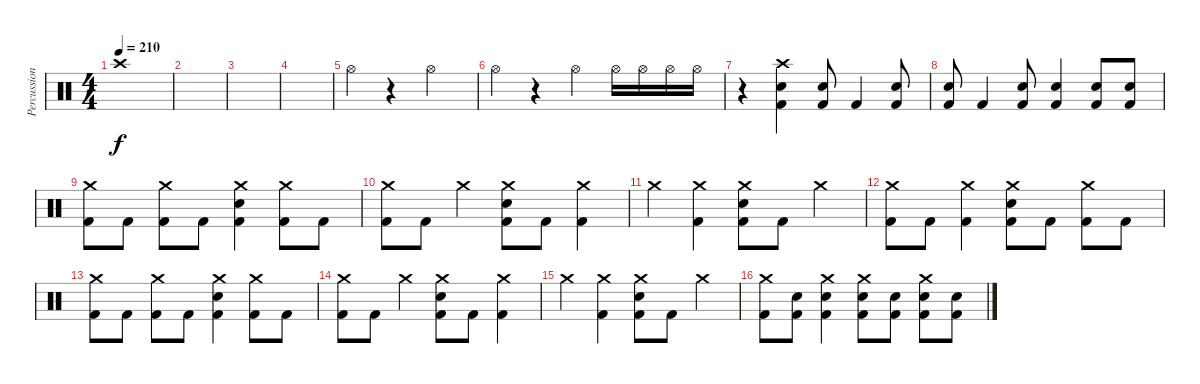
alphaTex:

\track ("Percussion" "Percussion") {instrument percussion}
\staff {score}
\articulation defaults
\ts (4 4)
\tempo 210
\clef neutral
\ks c "Crash high (hit)".1{dy f}
|
|
|
|
"Hi-Hat (open)".4 r.4 "Hi-Hat (open)".2 |
"Hi-Hat (open)".4 r.4 "Hi-Hat (open)".4 "Hi-Hat (open)".16 "Hi-Hat (open)".16 "Hi-Hat (open)".16 "Hi-Hat (open)".16 |
r.4 ("Crash high (hit)" "Electric Snare (hit)" "Kick (hit) 2").4 ("Electric Snare (hit)" "Kick (hit) 2").8 "Kick (hit) 2".4 ("Electric Snare (hit)" "Kick (hit) 2").8 |
("Electric Snare (hit)" "Kick (hit) 2").8 "Kick (hit) 2".4 ("Electric Snare (hit)" "Kick (hit) 2").8 ("Electric Snare (hit)" "Kick (hit) 2").4 ("Electric Snare (hit)" "Kick (hit) 2").8 ("Electric Snare (hit)" "Kick (hit) 2").8 |
("Crash medium (hit)" "Kick (hit) 2").8 "Kick (hit) 2".8 ("Crash medium (hit)" "Kick (hit) 2").8 "Kick (hit) 2".8 ("Crash medium (hit)" "Electric Snare (hit)" "Kick (hit) 2").4 ("Crash medium (hit)" "Kick (hit) 2").8 "Kick (hit) 2".8 |
("Crash medium (hit)" "Kick (hit) 2").8 "Kick (hit) 2".8 "Crash medium (hit)".4 ("Crash medium (hit)" "Electric Snare (hit)" "Kick (hit) 2").8 "Kick (hit) 2".8 ("Crash medium (hit)" "Kick (hit) 2").4 |
"Crash medium (hit)".4 ("Crash medium (hit)" "Kick (hit) 2").4 ("Crash medium (hit)" "Electric Snare (hit)" "Kick (hit) 2").8 "Kick (hit) 2".8 "Crash medium (hit)".4 |
("Crash medium (hit)" "Kick (hit) 2").8 "Kick (hit) 2".8 ("Crash medium (hit)" "Kick (hit) 2").4 ("Crash medium (hit)" "Electric Snare (hit)" "Kick (hit) 2").8 "Kick (hit) 2".8 ("Crash medium (hit)" "Kick (hit) 2").8 "Kick (hit) 2".8 |
("Crash medium (hit)" "Kick (hit) 2").8 "Kick (hit) 2".8 ("Crash medium (hit)" "Kick (hit) 2").8 "Kick (hit) 2".8 ("Crash medium (hit)" "Electric Snare (hit)" "Kick (hit) 2").4 ("Crash medium (hit)" "Kick (hit) 2").8 "Kick (hit) 2".8 |
("Crash medium (hit)" "Kick (hit) 2").8 "Kick (hit) 2".8 "Crash medium (hit)".4 ("Crash medium (hit)" "Electric Snare (hit)" "Kick (hit) 2").8 "Kick (hit) 2".8 ("Crash medium (hit)" "Kick (hit) 2").4 |
"Crash medium (hit)".4 ("Crash medium (hit)" "Kick (hit) 2").4 ("Crash medium (hit)" "Electric Snare (hit)" "Kick (hit) 2").8 "Kick (hit) 2".8 "Crash medium (hit)".4 |
("Crash medium (hit)" "Kick (hit) 2").8 ("Electric Snare (hit)" "Kick (hit) 2").8 ("Crash medium (hit)" "Electric Snare (hit)" "Kick (hit) 2").4 ("Crash medium (hit)" "Electric Snare (hit)" "Kick (hit) 2").8 ("Electric Snare (hit)" "Kick (hit) 2").8 ("Crash medium (hit)" "Electric Snare (hit)" "Kick (hit) 2").8 ("Electric Snare (hit)" "Kick (hit) 2").8
